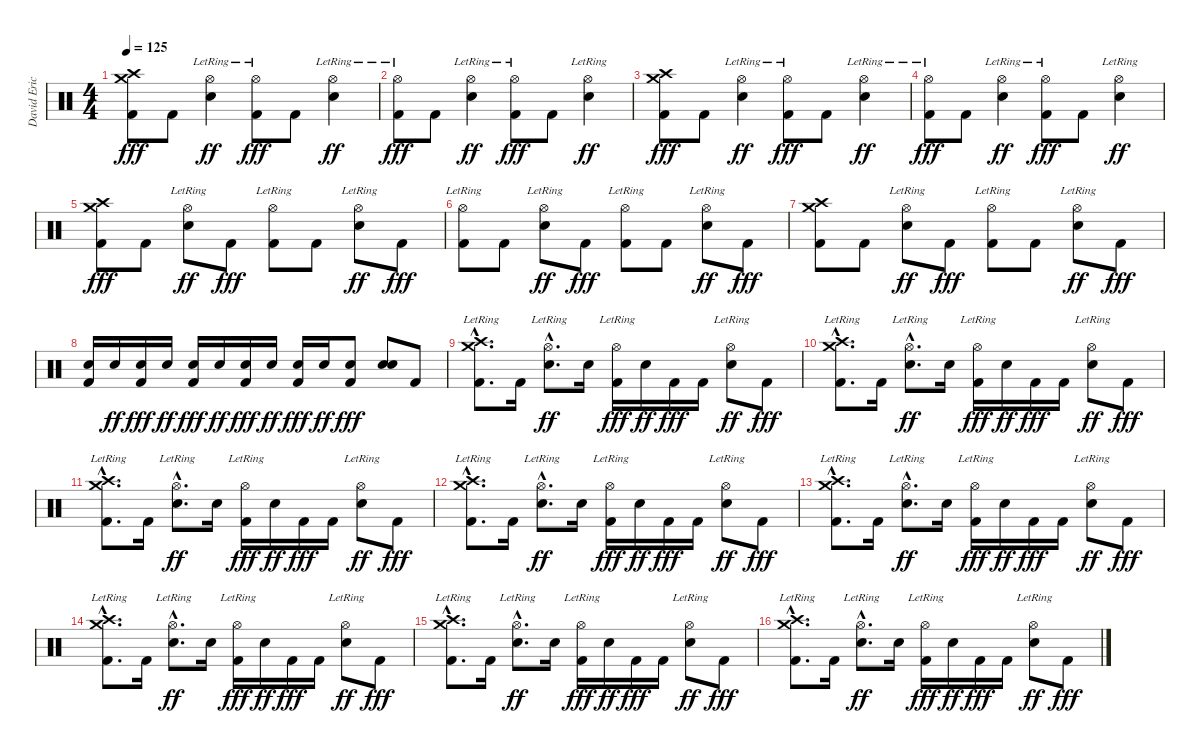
\track ("David Eric Grohl" "David Eric") {instrument percussion}
\staff {score}
\articulation defaults
\ts (4 4)
\tempo 125
\clef neutral
\ks c
("Crash high (hit)" "Crash medium (hit)" "Kick (hit) 2").8{dy fff} "Kick (hit) 2".8 ("Hi-Hat (open)"{lr} "Electric Snare (hit)").4{dy ff} ("Hi-Hat (open)"{lr} "Kick (hit) 2").8{dy fff} "Kick (hit) 2".8 ("Hi-Hat (open)"{lr} "Electric Snare (hit)").4{dy ff} |
("Hi-Hat (open)"{lr} "Kick (hit) 2").8{dy fff} "Kick (hit) 2".8 ("Hi-Hat (open)"{lr} "Electric Snare (hit)").4{dy ff} ("Hi-Hat (open)"{lr} "Kick (hit) 2").8{dy fff} "Kick (hit) 2".8 ("Hi-Hat (open)"{lr} "Electric Snare (hit)").4{dy ff} |
("Crash high (hit)" "Crash medium (hit)" "Kick (hit) 2").8{dy fff} "Kick (hit) 2".8 ("Hi-Hat (open)"{lr} "Electric Snare (hit)").4{dy ff} ("Hi-Hat (open)"{lr} "Kick (hit) 2").8{dy fff} "Kick (hit) 2".8 ("Hi-Hat (open)"{lr} "Electric Snare (hit)").4{dy ff} |
("Hi-Hat (open)"{lr} "Kick (hit) 2").8{dy fff} "Kick (hit) 2".8 ("Hi-Hat (open)"{lr} "Electric Snare (hit)").4{dy ff} ("Hi-Hat (open)"{lr} "Kick (hit) 2").8{dy fff} "Kick (hit) 2".8 ("Hi-Hat (open)"{lr} "Electric Snare (hit)").4{dy ff} |
("Crash high (hit)" "Crash medium (hit)" "Kick (hit) 2").8{dy fff} "Kick (hit) 2".8 ("Hi-Hat (open)"{lr} "Electric Snare (hit)").8{dy ff} "Kick (hit) 2".8{dy fff} ("Hi-Hat (open)"{lr} "Kick (hit) 2").8 "Kick (hit) 2".8 ("Hi-Hat (open)"{lr} "Electric Snare (hit)").8{dy ff} "Kick (hit) 2".8{dy fff} |
("Hi-Hat (open)"{lr} "Kick (hit) 2").8 "Kick (hit) 2".8 ("Hi-Hat (open)"{lr} "Electric Snare (hit)").8{dy ff} "Kick (hit) 2".8{dy fff} ("Hi-Hat (open)"{lr} "Kick (hit) 2").8 "Kick (hit) 2".8 ("Hi-Hat (open)"{lr} "Electric Snare (hit)").8{dy ff} "Kick (hit) 2".8{dy fff} |
("Crash high (hit)" "Crash medium (hit)" "Kick (hit) 2").8 "Kick (hit) 2".8 ("Hi-Hat (open)"{lr} "Electric Snare (hit)").8{dy ff} "Kick (hit) 2".8{dy fff} ("Hi-Hat (open)"{lr} "Kick (hit) 2").8 "Kick (hit) 2".8 ("Hi-Hat (open)"{lr} "Electric Snare (hit)").8{dy ff} "Kick (hit) 2".8{dy fff} |
("Electric Snare (hit)" "Kick (hit) 2").16 "Electric Snare (hit)".16{dy ff} ("Electric Snare (hit)" "Kick (hit) 2").16{dy fff} "Electric Snare (hit)".16{dy ff} ("Electric Snare (hit)" "Kick (hit) 2").16{dy fff} "Electric Snare (hit)".16{dy ff} ("Electric Snare (hit)" "Kick (hit) 2").16{dy fff} "Electric Snare (hit)".16{dy ff} ("Electric Snare (hit)" "Kick (hit) 2").16{dy fff} "Electric Snare (hit)".16{dy ff} ("Electric Snare (hit)" "Kick (hit) 2").8{dy fff} ("Electric Snare (hit)" "Electric Snare (hit)").8 "Kick (hit) 2".8 |
("Crash medium (hit)"{hac lr} "Crash high (hit)"{hac lr} "Kick (hit) 2"{hac}).8{d} "Kick (hit) 2".16 ("Hi-Hat (open)"{hac lr} "Electric Snare (hit)"{hac}).8{d dy ff} "Electric Snare (hit)".16 ("Hi-Hat (open)"{lr} "Kick (hit) 2").16{dy fff} "Electric Snare (hit)".16{dy ff} "Kick (hit) 2".16{dy fff} "Kick (hit) 2".16 ("Hi-Hat (open)"{lr} "Electric Snare (hit)").8{dy ff} "Kick (hit) 2".8{dy fff} |
("Crash medium (hit)"{hac lr} "Crash high (hit)"{hac lr} "Kick (hit) 2"{hac}).8{d} "Kick (hit) 2".16 ("Hi-Hat (open)"{hac lr} "Electric Snare (hit)"{hac}).8{d dy ff} "Electric Snare (hit)".16 ("Hi-Hat (open)"{lr} "Kick (hit) 2").16{dy fff} "Electric Snare (hit)".16{dy ff} "Kick (hit) 2".16{dy fff} "Kick (hit) 2".16 ("Hi-Hat (open)"{lr} "Electric Snare (hit)").8{dy ff} "Kick (hit) 2".8{dy fff} |
("Crash medium (hit)"{hac lr} "Crash high (hit)"{hac lr} "Kick (hit) 2"{hac}).8{d} "Kick (hit) 2".16 ("Hi-Hat (open)"{hac lr} "Electric Snare (hit)"{hac}).8{d dy ff} "Electric Snare (hit)".16 ("Hi-Hat (open)"{lr} "Kick (hit) 2").16{dy fff} "Electric Snare (hit)".16{dy ff} "Kick (hit) 2".16{dy fff} "Kick (hit) 2".16 ("Hi-Hat (open)"{lr} "Electric Snare (hit)").8{dy ff} "Kick (hit) 2".8{dy fff} |
("Crash medium (hit)"{hac lr} "Crash high (hit)"{hac lr} "Kick (hit) 2"{hac}).8{d} "Kick (hit) 2".16 ("Hi-Hat (open)"{hac lr} "Electric Snare (hit)"{hac}).8{d dy ff} "Electric Snare (hit)".16 ("Hi-Hat (open)"{lr} "Kick (hit) 2").16{dy fff} "Electric Snare (hit)".16{dy ff} "Kick (hit) 2".16{dy fff} "Kick (hit) 2".16 ("Hi-Hat (open)"{lr} "Electric Snare (hit)").8{dy ff} "Kick (hit) 2".8{dy fff} |
("Crash medium (hit)"{hac lr} "Crash high (hit)"{hac lr} "Kick (hit) 2"{hac}).8{d} "Kick (hit) 2".16 ("Hi-Hat (open)"{hac lr} "Electric Snare (hit)"{hac}).8{d dy ff} "Electric Snare (hit)".16 ("Hi-Hat (open)"{lr} "Kick (hit) 2").16{dy fff} "Electric Snare (hit)".16{dy ff} "Kick (hit) 2".16{dy fff} "Kick (hit) 2".16 ("Hi-Hat (open)"{lr} "Electric Snare (hit)").8{dy ff} "Kick (hit) 2".8{dy fff} |
("Crash medium (hit)"{hac lr} "Crash high (hit)"{hac lr} "Kick (hit) 2"{hac}).8{d} "Kick (hit) 2".16 ("Hi-Hat (open)"{hac lr} "Electric Snare (hit)"{hac}).8{d dy ff} "Electric Snare (hit)".16 ("Hi-Hat (open)"{lr} "Kick (hit) 2").16{dy fff} "Electric Snare (hit)".16{dy ff} "Kick (hit) 2".16{dy fff} "Kick (hit) 2".16 ("Hi-Hat (open)"{lr} "Electric Snare (hit)").8{dy ff} "Kick (hit) 2".8{dy fff} |
("Crash medium (hit)"{hac lr} "Crash high (hit)"{hac lr} "Kick (hit) 2"{hac}).8{d} "Kick (hit) 2".16 ("Hi-Hat (open)"{hac lr} "Electric Snare (hit)"{hac}).8{d dy ff} "Electric Snare (hit)".16 ("Hi-Hat (open)"{lr} "Kick (hit) 2").16{dy fff} "Electric Snare (hit)".16{dy ff} "Kick (hit) 2".16{dy fff} "Kick (hit) 2".16 ("Hi-Hat (open)"{lr} "Electric Snare (hit)").8{dy ff} "Kick (hit) 2".8{dy fff} |
("Crash medium (hit)"{hac lr} "Crash high (hit)"{hac lr} "Kick (hit) 2"{hac}).8{d} "Kick (hit) 2".16 ("Hi-Hat (open)"{hac lr} "Electric Snare (hit)"{hac}).8{d dy ff} "Electric Snare (hit)".16 ("Hi-Hat (open)"{lr} "Kick (hit) 2").16{dy fff} "Electric Snare (hit)".16{dy ff} "Kick (hit) 2".16{dy fff} "Kick (hit) 2".16 ("Hi-Hat (open)"{lr} "Electric Snare (hit)").8{dy ff} "Kick (hit) 2".8{dy fff}
